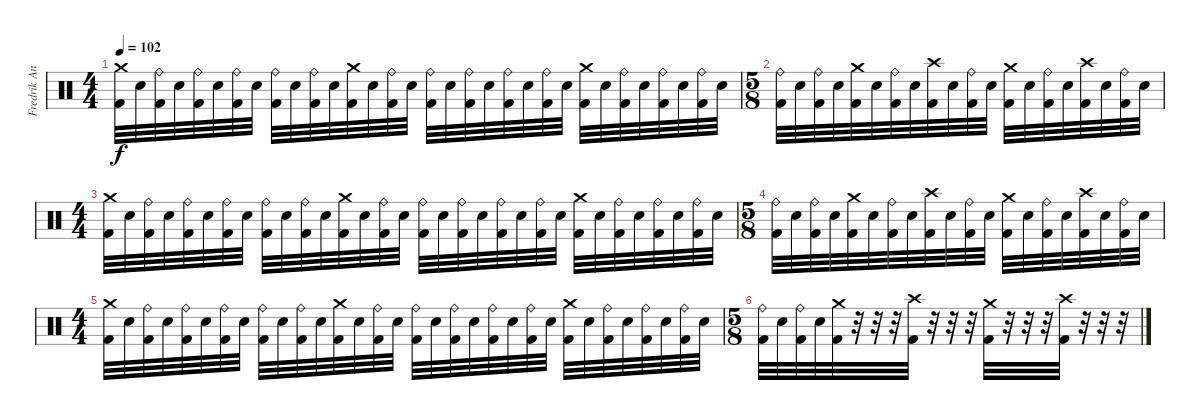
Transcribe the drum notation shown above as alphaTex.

\track ("Fredrik Andersson" "Fredrik An") {instrument percussion}
\staff {score}
\articulation defaults
\ts (4 4)
\tempo 102
\clef neutral
\ks c
("Crash medium (hit)" "Kick (hit) 2").32{dy f} "Electric Snare (hit)".32 ("Ride (bell)" "Kick (hit) 2").32 "Electric Snare (hit)".32 ("Ride (bell)" "Kick (hit) 2").32 "Electric Snare (hit)".32 ("Ride (bell)" "Kick (hit) 2").32 "Electric Snare (hit)".32 ("Ride (bell)" "Kick (hit) 2").32 "Electric Snare (hit)".32 ("Ride (bell)" "Kick (hit) 2").32 "Electric Snare (hit)".32 ("Crash medium (hit)" "Kick (hit) 2").32 "Electric Snare (hit)".32 ("Ride (bell)" "Kick (hit) 2").32 "Electric Snare (hit)".32 ("Ride (bell)" "Kick (hit) 2").32 "Electric Snare (hit)".32 ("Ride (bell)" "Kick (hit) 2").32 "Electric Snare (hit)".32 ("Ride (bell)" "Kick (hit) 2").32 "Electric Snare (hit)".32 ("Ride (bell)" "Kick (hit) 2").32 "Electric Snare (hit)".32 ("Crash medium (hit)" "Kick (hit) 2").32 "Electric Snare (hit)".32 ("Ride (bell)" "Kick (hit) 2").32 "Electric Snare (hit)".32 ("Ride (bell)" "Kick (hit) 2").32 "Electric Snare (hit)".32 ("Ride (bell)" "Kick (hit) 2").32 "Electric Snare (hit)".32 |
\ts (5 8)
("Ride (bell)" "Kick (hit) 2").32 "Electric Snare (hit)".32 ("Ride (bell)" "Kick (hit) 2").32 "Electric Snare (hit)".32 ("Crash medium (hit)" "Kick (hit) 2").32 "Electric Snare (hit)".32 ("Ride (bell)" "Kick (hit) 2").32 "Electric Snare (hit)".32 ("Crash high (hit)" "Kick (hit) 2").32 "Electric Snare (hit)".32 ("Ride (bell)" "Kick (hit) 2").32 "Electric Snare (hit)".32 ("Crash medium (hit)" "Kick (hit) 2").32 "Electric Snare (hit)".32 ("Ride (bell)" "Kick (hit) 2").32 "Electric Snare (hit)".32 ("Crash high (hit)" "Kick (hit) 2").32 "Electric Snare (hit)".32 ("Ride (bell)" "Kick (hit) 2").32 "Electric Snare (hit)".32 |
\ts (4 4)
("Crash medium (hit)" "Kick (hit) 2").32 "Electric Snare (hit)".32 ("Ride (bell)" "Kick (hit) 2").32 "Electric Snare (hit)".32 ("Ride (bell)" "Kick (hit) 2").32 "Electric Snare (hit)".32 ("Ride (bell)" "Kick (hit) 2").32 "Electric Snare (hit)".32 ("Ride (bell)" "Kick (hit) 2").32 "Electric Snare (hit)".32 ("Ride (bell)" "Kick (hit) 2").32 "Electric Snare (hit)".32 ("Crash medium (hit)" "Kick (hit) 2").32 "Electric Snare (hit)".32 ("Ride (bell)" "Kick (hit) 2").32 "Electric Snare (hit)".32 ("Ride (bell)" "Kick (hit) 2").32 "Electric Snare (hit)".32 ("Ride (bell)" "Kick (hit) 2").32 "Electric Snare (hit)".32 ("Ride (bell)" "Kick (hit) 2").32 "Electric Snare (hit)".32 ("Ride (bell)" "Kick (hit) 2").32 "Electric Snare (hit)".32 ("Crash medium (hit)" "Kick (hit) 2").32 "Electric Snare (hit)".32 ("Ride (bell)" "Kick (hit) 2").32 "Electric Snare (hit)".32 ("Ride (bell)" "Kick (hit) 2").32 "Electric Snare (hit)".32 ("Ride (bell)" "Kick (hit) 2").32 "Electric Snare (hit)".32 |
\ts (5 8)
("Ride (bell)" "Kick (hit) 2").32 "Electric Snare (hit)".32 ("Ride (bell)" "Kick (hit) 2").32 "Electric Snare (hit)".32 ("Crash medium (hit)" "Kick (hit) 2").32 "Electric Snare (hit)".32 ("Ride (bell)" "Kick (hit) 2").32 "Electric Snare (hit)".32 ("Crash high (hit)" "Kick (hit) 2").32 "Electric Snare (hit)".32 ("Ride (bell)" "Kick (hit) 2").32 "Electric Snare (hit)".32 ("Crash medium (hit)" "Kick (hit) 2").32 "Electric Snare (hit)".32 ("Ride (bell)" "Kick (hit) 2").32 "Electric Snare (hit)".32 ("Crash high (hit)" "Kick (hit) 2").32 "Electric Snare (hit)".32 ("Ride (bell)" "Kick (hit) 2").32 "Electric Snare (hit)".32 |
\ts (4 4)
("Crash medium (hit)" "Kick (hit) 2").32 "Electric Snare (hit)".32 ("Ride (bell)" "Kick (hit) 2").32 "Electric Snare (hit)".32 ("Ride (bell)" "Kick (hit) 2").32 "Electric Snare (hit)".32 ("Ride (bell)" "Kick (hit) 2").32 "Electric Snare (hit)".32 ("Ride (bell)" "Kick (hit) 2").32 "Electric Snare (hit)".32 ("Ride (bell)" "Kick (hit) 2").32 "Electric Snare (hit)".32 ("Crash medium (hit)" "Kick (hit) 2").32 "Electric Snare (hit)".32 ("Ride (bell)" "Kick (hit) 2").32 "Electric Snare (hit)".32 ("Ride (bell)" "Kick (hit) 2").32 "Electric Snare (hit)".32 ("Ride (bell)" "Kick (hit) 2").32 "Electric Snare (hit)".32 ("Ride (bell)" "Kick (hit) 2").32 "Electric Snare (hit)".32 ("Ride (bell)" "Kick (hit) 2").32 "Electric Snare (hit)".32 ("Crash medium (hit)" "Kick (hit) 2").32 "Electric Snare (hit)".32 ("Ride (bell)" "Kick (hit) 2").32 "Electric Snare (hit)".32 ("Ride (bell)" "Kick (hit) 2").32 "Electric Snare (hit)".32 ("Ride (bell)" "Kick (hit) 2").32 "Electric Snare (hit)".32 |
\ts (5 8)
("Ride (bell)" "Kick (hit) 2").32 "Electric Snare (hit)".32 ("Ride (bell)" "Kick (hit) 2").32 "Electric Snare (hit)".32 ("Crash medium (hit)" "Kick (hit) 2").32 r.32 r.32 r.32 ("Crash high (hit)" "Kick (hit) 2").32 r.32 r.32 r.32 ("Crash medium (hit)" "Kick (hit) 2").32 r.32 r.32 r.32 ("Crash high (hit)" "Kick (hit) 2").32 r.32 r.32 r.32
